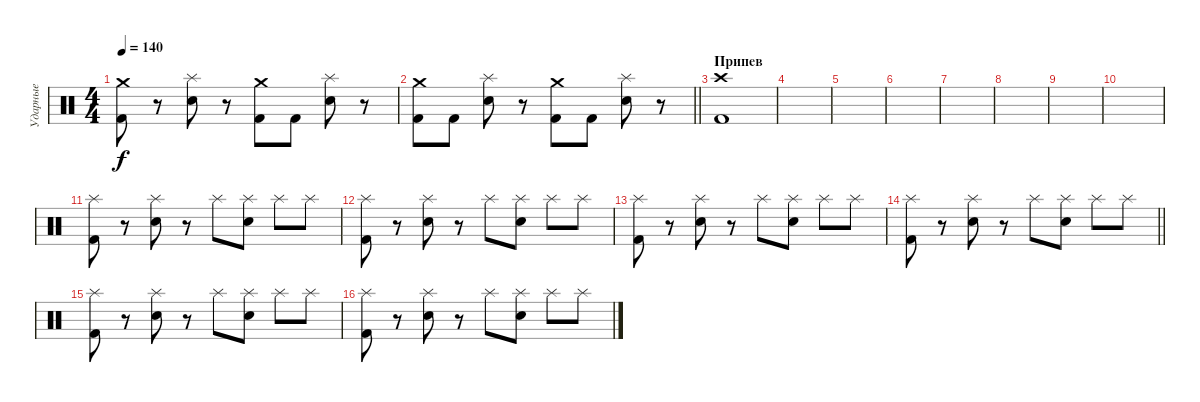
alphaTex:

\track ("Ударные" "Ударные") {instrument percussion}
\staff {score}
\articulation defaults
\ts (4 4)
\tempo 140
\clef neutral
\ks c
("Crash medium (hit)" "Kick (hit) 2").8{dy f} r.8 ("Splash (hit)" "Electric Snare (hit)").8 r.8 ("Crash medium (hit)" "Kick (hit) 2").8 "Kick (hit) 2".8 ("Splash (hit)" "Electric Snare (hit)").8 r.8 |
\barLineRight lightlight
("Crash medium (hit)" "Kick (hit) 2").8 "Kick (hit) 2".8 ("Splash (hit)" "Electric Snare (hit)").8 r.8 ("Crash medium (hit)" "Kick (hit) 2").8 "Kick (hit) 2".8 ("Splash (hit)" "Electric Snare (hit)").8 r.8 |
\section ("" "Припев")
("Crash high (hit)" "Kick (hit) 2").1 |
|
|
|
|
|
|
|
("Splash (hit)" "Kick (hit) 2").8 r.8 ("Splash (hit)" "Electric Snare (hit)").8 r.8 "Splash (hit)".8 ("Splash (hit)" "Electric Snare (hit)").8 "Splash (hit)".8 "Splash (hit)".8 |
("Splash (hit)" "Kick (hit) 2").8 r.8 ("Splash (hit)" "Electric Snare (hit)").8 r.8 "Splash (hit)".8 ("Splash (hit)" "Electric Snare (hit)").8 "Splash (hit)".8 "Splash (hit)".8 |
("Splash (hit)" "Kick (hit) 2").8 r.8 ("Splash (hit)" "Electric Snare (hit)").8 r.8 "Splash (hit)".8 ("Splash (hit)" "Electric Snare (hit)").8 "Splash (hit)".8 "Splash (hit)".8 |
\barLineRight lightlight
("Splash (hit)" "Kick (hit) 2").8 r.8 ("Splash (hit)" "Electric Snare (hit)").8 r.8 "Splash (hit)".8 ("Splash (hit)" "Electric Snare (hit)").8 "Splash (hit)".8 "Splash (hit)".8 |
("Splash (hit)" "Kick (hit) 2").8 r.8 ("Splash (hit)" "Electric Snare (hit)").8 r.8 "Splash (hit)".8 ("Splash (hit)" "Electric Snare (hit)").8 "Splash (hit)".8 "Splash (hit)".8 |
("Splash (hit)" "Kick (hit) 2").8 r.8 ("Splash (hit)" "Electric Snare (hit)").8 r.8 "Splash (hit)".8 ("Splash (hit)" "Electric Snare (hit)").8 "Splash (hit)".8 "Splash (hit)".8
